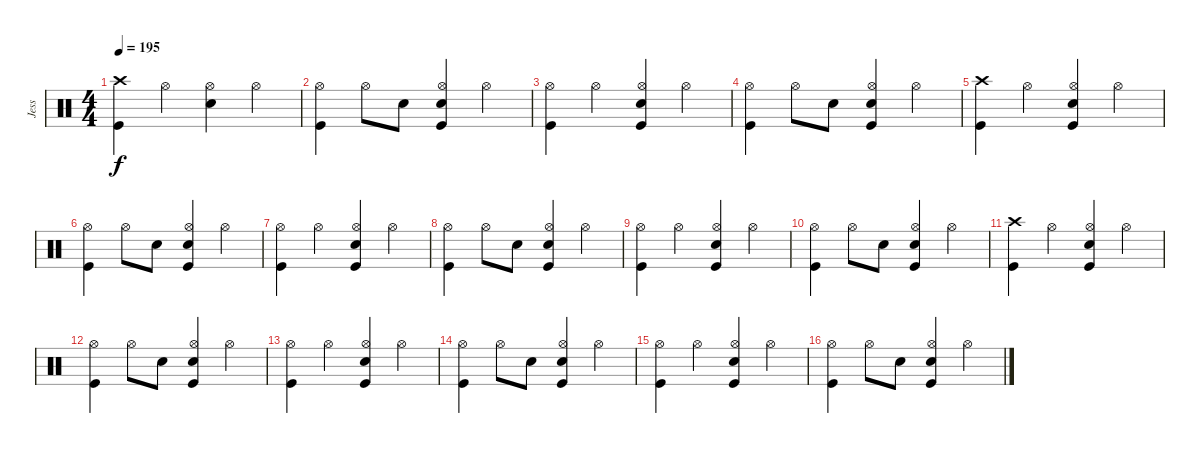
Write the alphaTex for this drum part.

\track ("Jess" "Jess") {instrument percussion}
\staff {score}
\articulation defaults
\ts (4 4)
\tempo 195
\clef neutral
\ks c
("Crash high (hit)" "Kick (hit)").4{dy f} "Hi-Hat (open)".4 ("Hi-Hat (open)" "Electric Snare (hit)").4 "Hi-Hat (open)".4 |
("Hi-Hat (open)" "Kick (hit)").4 "Hi-Hat (open)".8 "Electric Snare (hit)".8 ("Hi-Hat (open)" "Electric Snare (hit)" "Kick (hit)").4 "Hi-Hat (open)".4 |
("Hi-Hat (open)" "Kick (hit)").4 "Hi-Hat (open)".4 ("Hi-Hat (open)" "Electric Snare (hit)" "Kick (hit)").4 "Hi-Hat (open)".4 |
("Hi-Hat (open)" "Kick (hit)").4 "Hi-Hat (open)".8 "Electric Snare (hit)".8 ("Hi-Hat (open)" "Electric Snare (hit)" "Kick (hit)").4 "Hi-Hat (open)".4 |
("Crash high (hit)" "Kick (hit)").4 "Hi-Hat (open)".4 ("Hi-Hat (open)" "Electric Snare (hit)" "Kick (hit)").4 "Hi-Hat (open)".4 |
("Hi-Hat (open)" "Kick (hit)").4 "Hi-Hat (open)".8 "Electric Snare (hit)".8 ("Hi-Hat (open)" "Electric Snare (hit)" "Kick (hit)").4 "Hi-Hat (open)".4 |
("Hi-Hat (open)" "Kick (hit)").4 "Hi-Hat (open)".4 ("Hi-Hat (open)" "Electric Snare (hit)" "Kick (hit)").4 "Hi-Hat (open)".4 |
("Hi-Hat (open)" "Kick (hit)").4 "Hi-Hat (open)".8 "Electric Snare (hit)".8 ("Hi-Hat (open)" "Electric Snare (hit)" "Kick (hit)").4 "Hi-Hat (open)".4 |
("Hi-Hat (open)" "Kick (hit)").4 "Hi-Hat (open)".4 ("Hi-Hat (open)" "Electric Snare (hit)" "Kick (hit)").4 "Hi-Hat (open)".4 |
("Hi-Hat (open)" "Kick (hit)").4 "Hi-Hat (open)".8 "Electric Snare (hit)".8 ("Hi-Hat (open)" "Electric Snare (hit)" "Kick (hit)").4 "Hi-Hat (open)".4 |
("Crash high (hit)" "Kick (hit)").4 "Hi-Hat (open)".4 ("Hi-Hat (open)" "Electric Snare (hit)" "Kick (hit)").4 "Hi-Hat (open)".4 |
("Hi-Hat (open)" "Kick (hit)").4 "Hi-Hat (open)".8 "Electric Snare (hit)".8 ("Hi-Hat (open)" "Electric Snare (hit)" "Kick (hit)").4 "Hi-Hat (open)".4 |
("Hi-Hat (open)" "Kick (hit)").4 "Hi-Hat (open)".4 ("Hi-Hat (open)" "Electric Snare (hit)" "Kick (hit)").4 "Hi-Hat (open)".4 |
("Hi-Hat (open)" "Kick (hit)").4 "Hi-Hat (open)".8 "Electric Snare (hit)".8 ("Hi-Hat (open)" "Electric Snare (hit)" "Kick (hit)").4 "Hi-Hat (open)".4 |
("Hi-Hat (open)" "Kick (hit)").4 "Hi-Hat (open)".4 ("Hi-Hat (open)" "Electric Snare (hit)" "Kick (hit)").4 "Hi-Hat (open)".4 |
("Hi-Hat (open)" "Kick (hit)").4 "Hi-Hat (open)".8 "Electric Snare (hit)".8 ("Hi-Hat (open)" "Electric Snare (hit)" "Kick (hit)").4 "Hi-Hat (open)".4
